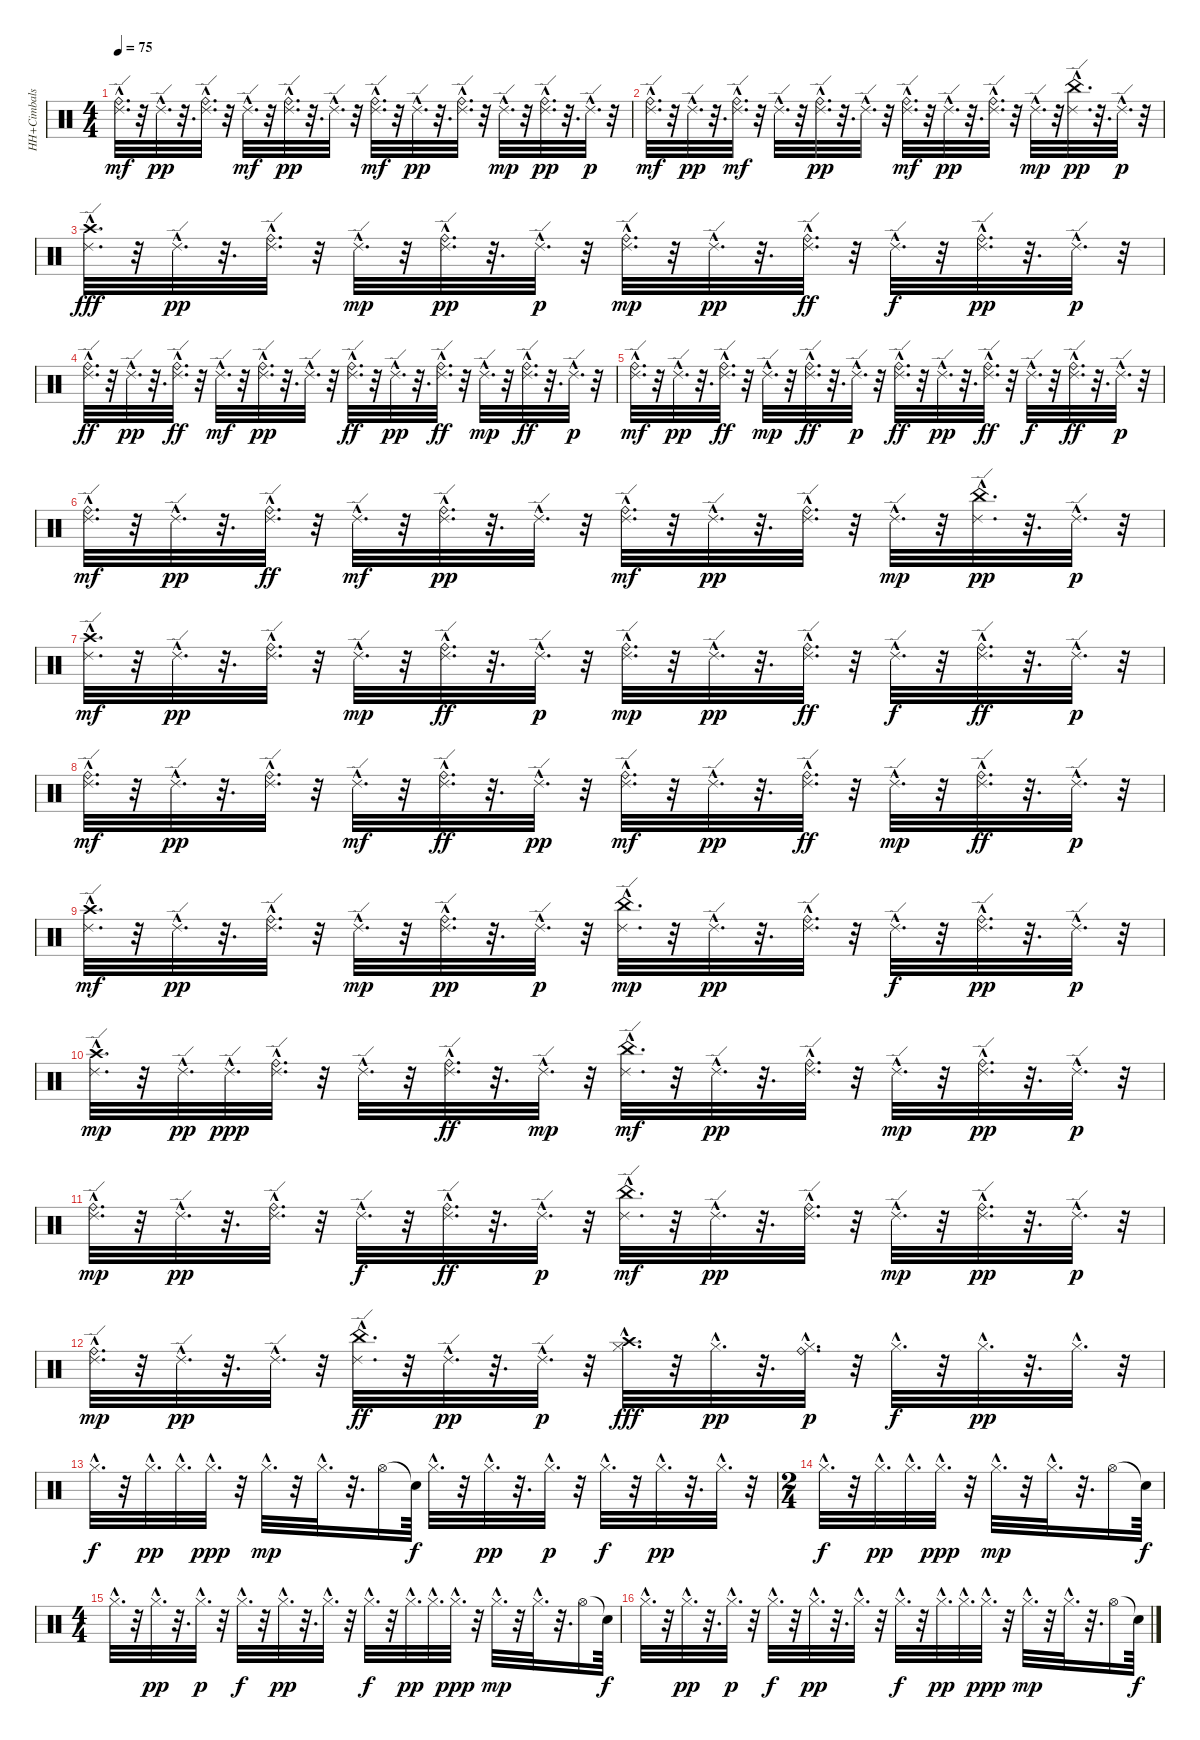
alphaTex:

\track ("HH+Cimbals" "HH+Cimbals") {instrument percussion}
\staff {score}
\articulation defaults
\ts (4 4)
\tempo 75
\clef neutral
\ks c
("Ride (bell)"{hac} "Ride (edge) 2"{hac}).32{d dy mf} r.32 "Ride (edge) 2"{hac}.32{d dy pp} r.32{d} ("Ride (bell)"{hac} "Ride (edge) 2"{hac}).32{d} r.32 "Ride (edge) 2"{hac}.32{d dy mf} r.32 ("Ride (bell)"{hac} "Ride (edge) 2"{hac}).32{d dy pp} r.32{d} "Ride (edge) 2"{hac}.32{d} r.32 ("Ride (bell)"{hac} "Ride (edge) 2"{hac}).32{d dy mf} r.32 "Ride (edge) 2"{hac}.32{d dy pp} r.32{d} ("Ride (bell)"{hac} "Ride (edge) 2"{hac}).32{d} r.32 "Ride (edge) 2"{hac}.32{d dy mp} r.32 ("Ride (edge) 2"{hac} "Ride (bell)"{hac}).32{d dy pp} r.32{d} "Ride (edge) 2"{hac}.32{d dy p} r.32 |
("Ride (bell)"{hac} "Ride (edge) 2"{hac}).32{d dy mf} r.32 "Ride (edge) 2"{hac}.32{d dy pp} r.32{d} ("Ride (edge) 2"{hac} "Ride (bell)"{hac}).32{d dy mf} r.32 "Ride (edge) 2"{hac}.32{d} r.32 ("Ride (edge) 2"{hac} "Ride (bell)"{hac}).32{d dy pp} r.32{d} "Ride (edge) 2"{hac}.32{d} r.32 ("Ride (edge) 2"{hac} "Ride (bell)"{hac}).32{d dy mf} r.32 "Ride (edge) 2"{hac}.32{d dy pp} r.32{d} ("Ride (edge) 2"{hac} "Ride (bell)"{hac}).32{d} r.32 "Ride (edge) 2"{hac}.32{d dy mp} r.32 ("China (hit)"{hac} "Ride (edge) 2"{hac}).32{d dy pp} r.32{d} "Ride (edge) 2"{hac}.32{d dy p} r.32 |
("Ride (edge) 2"{hac} "Crash high (hit)"{hac}).32{d dy fff} r.32 "Ride (edge) 2"{hac}.32{d dy pp} r.32{d} ("Ride (edge) 2"{hac} "Ride (bell)"{hac}).32{d} r.32 "Ride (edge) 2"{hac}.32{d dy mp} r.32 ("Ride (edge) 2"{hac} "Ride (bell)"{hac}).32{d dy pp} r.32{d} "Ride (edge) 2"{hac}.32{d dy p} r.32 ("Ride (edge) 2"{hac} "Ride (bell)"{hac}).32{d dy mp} r.32 "Ride (edge) 2"{hac}.32{d dy pp} r.32{d} ("Ride (edge) 2"{hac} "Ride (bell)"{hac}).32{d dy ff} r.32 "Ride (edge) 2"{hac}.32{d dy f} r.32 ("Ride (edge) 2"{hac} "Ride (bell)"{hac}).32{d dy pp} r.32{d} "Ride (edge) 2"{hac}.32{d dy p} r.32 |
("Ride (edge) 2"{hac} "Ride (bell)"{hac}).32{d dy ff} r.32 "Ride (edge) 2"{hac}.32{d dy pp} r.32{d} ("Ride (edge) 2"{hac} "Ride (bell)"{hac}).32{d dy ff} r.32 "Ride (edge) 2"{hac}.32{d dy mf} r.32 ("Ride (bell)"{hac} "Ride (edge) 2"{hac}).32{d dy pp} r.32{d} "Ride (edge) 2"{hac}.32{d} r.32 ("Ride (edge) 2"{hac} "Ride (bell)"{hac}).32{d dy ff} r.32 "Ride (edge) 2"{hac}.32{d dy pp} r.32{d} ("Ride (edge) 2"{hac} "Ride (bell)"{hac}).32{d dy ff} r.32 "Ride (edge) 2"{hac}.32{d dy mp} r.32 ("Ride (edge) 2"{hac} "Ride (bell)"{hac}).32{d dy ff} r.32{d} "Ride (edge) 2"{hac}.32{d dy p} r.32 |
("Ride (bell)"{hac} "Ride (edge) 2"{hac}).32{d dy mf} r.32 "Ride (edge) 2"{hac}.32{d dy pp} r.32{d} ("Ride (edge) 2"{hac} "Ride (bell)"{hac}).32{d dy ff} r.32 "Ride (edge) 2"{hac}.32{d dy mp} r.32 ("Ride (edge) 2"{hac} "Ride (bell)"{hac}).32{d dy ff} r.32{d} "Ride (edge) 2"{hac}.32{d dy p} r.32 ("Ride (edge) 2"{hac} "Ride (bell)"{hac}).32{d dy ff} r.32 "Ride (edge) 2"{hac}.32{d dy pp} r.32{d} ("Ride (edge) 2"{hac} "Ride (bell)"{hac}).32{d dy ff} r.32 "Ride (edge) 2"{hac}.32{d dy f} r.32 ("Ride (edge) 2"{hac} "Ride (bell)"{hac}).32{d dy ff} r.32{d} "Ride (edge) 2"{hac}.32{d dy p} r.32 |
("Ride (bell)"{hac} "Ride (edge) 2"{hac}).32{d dy mf} r.32 "Ride (edge) 2"{hac}.32{d dy pp} r.32{d} ("Ride (edge) 2"{hac} "Ride (bell)"{hac}).32{d dy ff} r.32 "Ride (edge) 2"{hac}.32{d dy mf} r.32 ("Ride (bell)"{hac} "Ride (edge) 2"{hac}).32{d dy pp} r.32{d} "Ride (edge) 2"{hac}.32{d} r.32 ("Ride (bell)"{hac} "Ride (edge) 2"{hac}).32{d dy mf} r.32 "Ride (edge) 2"{hac}.32{d dy pp} r.32{d} ("Ride (bell)"{hac} "Ride (edge) 2"{hac}).32{d} r.32 "Ride (edge) 2"{hac}.32{d dy mp} r.32 ("China (hit)"{hac} "Ride (edge) 2"{hac}).32{d dy pp} r.32{d} "Ride (edge) 2"{hac}.32{d dy p} r.32 |
("Crash high (hit)"{hac} "Ride (edge) 2"{hac}).32{d dy mf} r.32 "Ride (edge) 2"{hac}.32{d dy pp} r.32{d} ("Ride (bell)"{hac} "Ride (edge) 2"{hac}).32{d} r.32 "Ride (edge) 2"{hac}.32{d dy mp} r.32 ("Ride (edge) 2"{hac} "Ride (bell)"{hac}).32{d dy ff} r.32{d} "Ride (edge) 2"{hac}.32{d dy p} r.32 ("Ride (bell)"{hac} "Ride (edge) 2"{hac}).32{d dy mp} r.32 "Ride (edge) 2"{hac}.32{d dy pp} r.32{d} ("Ride (edge) 2"{hac} "Ride (bell)"{hac}).32{d dy ff} r.32 "Ride (edge) 2"{hac}.32{d dy f} r.32 ("Ride (edge) 2"{hac} "Ride (bell)"{hac}).32{d dy ff} r.32{d} "Ride (edge) 2"{hac}.32{d dy p} r.32 |
("Ride (bell)"{hac} "Ride (edge) 2"{hac}).32{d dy mf} r.32 "Ride (edge) 2"{hac}.32{d dy pp} r.32{d} ("Ride (bell)"{hac} "Ride (edge) 2"{hac}).32{d} r.32 "Ride (edge) 2"{hac}.32{d dy mf} r.32 ("Ride (edge) 2"{hac} "Ride (bell)"{hac}).32{d dy ff} r.32{d} "Ride (edge) 2"{hac}.32{d dy pp} r.32 ("Ride (edge) 2"{hac} "Ride (bell)"{hac}).32{d dy mf} r.32 "Ride (edge) 2"{hac}.32{d dy pp} r.32{d} ("Ride (edge) 2"{hac} "Ride (bell)"{hac}).32{d dy ff} r.32 "Ride (edge) 2"{hac}.32{d dy mp} r.32 ("Ride (edge) 2"{hac} "Ride (bell)"{hac}).32{d dy ff} r.32{d} "Ride (edge) 2"{hac}.32{d dy p} r.32 |
("Crash high (hit)"{hac} "Ride (edge) 2"{hac}).32{d dy mf} r.32 "Ride (edge) 2"{hac}.32{d dy pp} r.32{d} ("Ride (bell)"{hac} "Ride (edge) 2"{hac}).32{d} r.32 "Ride (edge) 2"{hac}.32{d dy mp} r.32 ("Ride (edge) 2"{hac} "Ride (bell)"{hac}).32{d dy pp} r.32{d} "Ride (edge) 2"{hac}.32{d dy p} r.32 ("China (hit)"{hac} "Ride (edge) 2"{hac}).32{d dy mp} r.32 "Ride (edge) 2"{hac}.32{d dy pp} r.32{d} ("Ride (bell)"{hac} "Ride (edge) 2"{hac}).32{d} r.32 "Ride (edge) 2"{hac}.32{d dy f} r.32 ("Ride (edge) 2"{hac} "Ride (bell)"{hac}).32{d dy pp} r.32{d} "Ride (edge) 2"{hac}.32{d dy p} r.32 |
("Crash high (hit)"{hac} "Ride (edge) 2"{hac}).32{d dy mp} r.32 "Ride (edge) 2"{hac}.32{d dy pp} "Ride (edge) 2"{hac}.32{d dy ppp} ("Ride (edge) 2"{hac} "Ride (bell)"{hac}).32{d} r.32 "Ride (edge) 2"{hac}.32{d} r.32 ("Ride (edge) 2"{hac} "Ride (bell)"{hac}).32{d dy ff} r.32{d} "Ride (edge) 2"{hac}.32{d dy mp} r.32 ("China (hit)"{hac} "Ride (edge) 2"{hac}).32{d dy mf} r.32 "Ride (edge) 2"{hac}.32{d dy pp} r.32{d} ("Ride (bell)"{hac} "Ride (edge) 2"{hac}).32{d} r.32 "Ride (edge) 2"{hac}.32{d dy mp} r.32 ("Ride (bell)"{hac} "Ride (edge) 2"{hac}).32{d dy pp} r.32{d} "Ride (edge) 2"{hac}.32{d dy p} r.32 |
("Ride (bell)"{hac} "Ride (edge) 2"{hac}).32{d dy mp} r.32 "Ride (edge) 2"{hac}.32{d dy pp} r.32{d} ("Ride (edge) 2"{hac} "Ride (bell)"{hac}).32{d} r.32 "Ride (edge) 2"{hac}.32{d dy f} r.32 ("Ride (edge) 2"{hac} "Ride (bell)"{hac}).32{d dy ff} r.32{d} "Ride (edge) 2"{hac}.32{d dy p} r.32 ("China (hit)"{hac} "Ride (edge) 2"{hac}).32{d dy mf} r.32 "Ride (edge) 2"{hac}.32{d dy pp} r.32{d} ("Ride (edge) 2"{hac} "Ride (bell)"{hac}).32{d} r.32 "Ride (edge) 2"{hac}.32{d dy mp} r.32 ("Ride (bell)"{hac} "Ride (edge) 2"{hac}).32{d dy pp} r.32{d} "Ride (edge) 2"{hac}.32{d dy p} r.32 |
("Ride (edge) 2"{hac} "Ride (bell)"{hac}).32{d dy mp} r.32 "Ride (edge) 2"{hac}.32{d dy pp} r.32{d} "Ride (edge) 2"{hac}.32{d} r.32 ("Ride (edge) 2"{hac} "China (hit)"{hac}).32{d dy ff} r.32 "Ride (edge) 2"{hac}.32{d dy pp} r.32{d} "Ride (edge) 2"{hac}.32{d dy p} r.32 ("Hi-Hat (closed)"{hac} "Crash high (hit)"{hac}).32{d dy fff} r.32 "Hi-Hat (closed)"{hac}.32{d dy pp} r.32{d} ("Hi-Hat (closed)"{hac} "Ride (bell)"{hac}).32{d dy p} r.32 "Hi-Hat (closed)"{hac}.32{d dy f} r.32 "Hi-Hat (closed)"{hac}.32{d dy pp} r.32{d} "Hi-Hat (closed)"{hac}.32{d} r.32 |
"Hi-Hat (closed)"{hac}.32{d dy f} r.32 "Hi-Hat (closed)"{hac}.32{d dy pp} "Hi-Hat (closed)"{hac}.32{d} "Hi-Hat (closed)"{hac}.32{d dy ppp} r.32 "Hi-Hat (closed)"{hac}.32{d dy mp} r.32 "Hi-Hat (closed)"{hac}.32{d} r.32{d} "Hi-Hat (open)".16 "Snare (hit)"{t}.64{dy f} "Hi-Hat (closed)"{hac}.32{d} r.32 "Hi-Hat (closed)"{hac}.32{d dy pp} r.32{d} "Hi-Hat (closed)"{hac}.32{d dy p} r.32 "Hi-Hat (closed)"{hac}.32{d dy f} r.32 "Hi-Hat (closed)"{hac}.32{d dy pp} r.32{d} "Hi-Hat (closed)"{hac}.32{d} r.32 |
\ts (2 4)
"Hi-Hat (closed)"{hac}.32{d dy f} r.32 "Hi-Hat (closed)"{hac}.32{d dy pp} "Hi-Hat (closed)"{hac}.32{d} "Hi-Hat (closed)"{hac}.32{d dy ppp} r.32 "Hi-Hat (closed)"{hac}.32{d dy mp} r.32 "Hi-Hat (closed)"{hac}.32{d} r.32{d} "Hi-Hat (open)".16 "Snare (hit)"{t}.64{dy f} |
\ts (4 4)
"Hi-Hat (closed)"{hac}.32{d} r.32 "Hi-Hat (closed)"{hac}.32{d dy pp} r.32{d} "Hi-Hat (closed)"{hac}.32{d dy p} r.32 "Hi-Hat (closed)"{hac}.32{d dy f} r.32 "Hi-Hat (closed)"{hac}.32{d dy pp} r.32{d} "Hi-Hat (closed)"{hac}.32{d} r.32 "Hi-Hat (closed)"{hac}.32{d dy f} r.32 "Hi-Hat (closed)"{hac}.32{d dy pp} "Hi-Hat (closed)"{hac}.32{d} "Hi-Hat (closed)"{hac}.32{d dy ppp} r.32 "Hi-Hat (closed)"{hac}.32{d dy mp} r.32 "Hi-Hat (closed)"{hac}.32{d} r.32{d} "Hi-Hat (open)".16 "Snare (hit)"{t}.64{dy f} |
"Hi-Hat (closed)"{hac}.32{d} r.32 "Hi-Hat (closed)"{hac}.32{d dy pp} r.32{d} "Hi-Hat (closed)"{hac}.32{d dy p} r.32 "Hi-Hat (closed)"{hac}.32{d dy f} r.32 "Hi-Hat (closed)"{hac}.32{d dy pp} r.32{d} "Hi-Hat (closed)"{hac}.32{d} r.32 "Hi-Hat (closed)"{hac}.32{d dy f} r.32 "Hi-Hat (closed)"{hac}.32{d dy pp} "Hi-Hat (closed)"{hac}.32{d} "Hi-Hat (closed)"{hac}.32{d dy ppp} r.32 "Hi-Hat (closed)"{hac}.32{d dy mp} r.32 "Hi-Hat (closed)"{hac}.32{d} r.32{d} "Hi-Hat (open)".16 "Snare (hit)"{t}.64{dy f}
